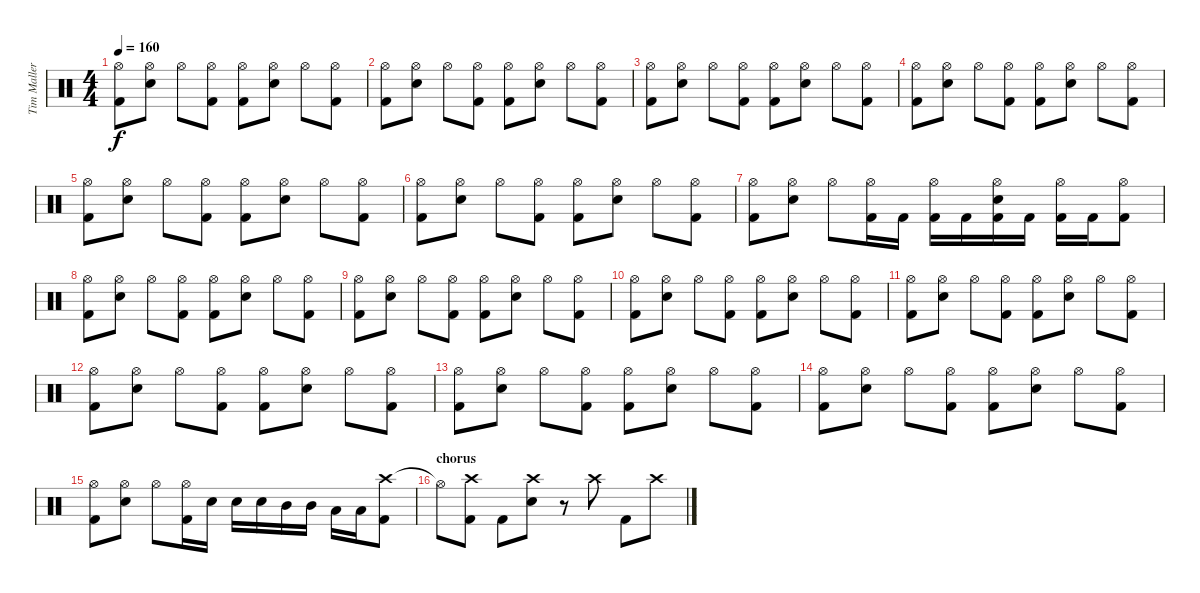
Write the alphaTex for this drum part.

\track ("Tim Mallere" "Tim Maller") {instrument percussion}
\staff {score}
\articulation defaults
\ts (4 4)
\tempo 160
\clef neutral
\ks c
("Hi-Hat (open)" "Kick (hit) 2").8{dy f} ("Hi-Hat (open)" "Electric Snare (hit)").8 "Hi-Hat (open)".8 ("Hi-Hat (open)" "Kick (hit) 2").8 ("Hi-Hat (open)" "Kick (hit) 2").8 ("Hi-Hat (open)" "Electric Snare (hit)").8 "Hi-Hat (open)".8 ("Hi-Hat (open)" "Kick (hit) 2").8 |
("Hi-Hat (open)" "Kick (hit) 2").8 ("Hi-Hat (open)" "Electric Snare (hit)").8 "Hi-Hat (open)".8 ("Hi-Hat (open)" "Kick (hit) 2").8 ("Hi-Hat (open)" "Kick (hit) 2").8 ("Hi-Hat (open)" "Electric Snare (hit)").8 "Hi-Hat (open)".8 ("Hi-Hat (open)" "Kick (hit) 2").8 |
("Hi-Hat (open)" "Kick (hit) 2").8 ("Hi-Hat (open)" "Electric Snare (hit)").8 "Hi-Hat (open)".8 ("Hi-Hat (open)" "Kick (hit) 2").8 ("Hi-Hat (open)" "Kick (hit) 2").8 ("Hi-Hat (open)" "Electric Snare (hit)").8 "Hi-Hat (open)".8 ("Hi-Hat (open)" "Kick (hit) 2").8 |
("Hi-Hat (open)" "Kick (hit) 2").8 ("Hi-Hat (open)" "Electric Snare (hit)").8 "Hi-Hat (open)".8 ("Hi-Hat (open)" "Kick (hit) 2").8 ("Hi-Hat (open)" "Kick (hit) 2").8 ("Hi-Hat (open)" "Electric Snare (hit)").8 "Hi-Hat (open)".8 ("Hi-Hat (open)" "Kick (hit) 2").8 |
("Hi-Hat (open)" "Kick (hit) 2").8 ("Hi-Hat (open)" "Electric Snare (hit)").8 "Hi-Hat (open)".8 ("Hi-Hat (open)" "Kick (hit) 2").8 ("Hi-Hat (open)" "Kick (hit) 2").8 ("Hi-Hat (open)" "Electric Snare (hit)").8 "Hi-Hat (open)".8 ("Hi-Hat (open)" "Kick (hit) 2").8 |
("Hi-Hat (open)" "Kick (hit) 2").8 ("Hi-Hat (open)" "Electric Snare (hit)").8 "Hi-Hat (open)".8 ("Hi-Hat (open)" "Kick (hit) 2").8 ("Hi-Hat (open)" "Kick (hit) 2").8 ("Hi-Hat (open)" "Electric Snare (hit)").8 "Hi-Hat (open)".8 ("Hi-Hat (open)" "Kick (hit) 2").8 |
("Hi-Hat (open)" "Kick (hit) 2").8 ("Hi-Hat (open)" "Electric Snare (hit)").8 "Hi-Hat (open)".8 ("Hi-Hat (open)" "Kick (hit) 2").16 "Kick (hit) 2".16 ("Hi-Hat (open)" "Kick (hit) 2").16 "Kick (hit) 2".16 ("Hi-Hat (open)" "Electric Snare (hit)" "Kick (hit) 2").16 "Kick (hit) 2".16 ("Hi-Hat (open)" "Kick (hit) 2").16 "Kick (hit) 2".16 ("Hi-Hat (open)" "Kick (hit) 2").8 |
("Hi-Hat (open)" "Kick (hit) 2").8 ("Hi-Hat (open)" "Electric Snare (hit)").8 "Hi-Hat (open)".8 ("Hi-Hat (open)" "Kick (hit) 2").8 ("Hi-Hat (open)" "Kick (hit) 2").8 ("Hi-Hat (open)" "Electric Snare (hit)").8 "Hi-Hat (open)".8 ("Hi-Hat (open)" "Kick (hit) 2").8 |
("Hi-Hat (open)" "Kick (hit) 2").8 ("Hi-Hat (open)" "Electric Snare (hit)").8 "Hi-Hat (open)".8 ("Hi-Hat (open)" "Kick (hit) 2").8 ("Hi-Hat (open)" "Kick (hit) 2").8 ("Hi-Hat (open)" "Electric Snare (hit)").8 "Hi-Hat (open)".8 ("Hi-Hat (open)" "Kick (hit) 2").8 |
("Hi-Hat (open)" "Kick (hit) 2").8 ("Hi-Hat (open)" "Electric Snare (hit)").8 "Hi-Hat (open)".8 ("Hi-Hat (open)" "Kick (hit) 2").8 ("Hi-Hat (open)" "Kick (hit) 2").8 ("Hi-Hat (open)" "Electric Snare (hit)").8 "Hi-Hat (open)".8 ("Hi-Hat (open)" "Kick (hit) 2").8 |
("Hi-Hat (open)" "Kick (hit) 2").8 ("Hi-Hat (open)" "Electric Snare (hit)").8 "Hi-Hat (open)".8 ("Hi-Hat (open)" "Kick (hit) 2").8 ("Hi-Hat (open)" "Kick (hit) 2").8 ("Hi-Hat (open)" "Electric Snare (hit)").8 "Hi-Hat (open)".8 ("Hi-Hat (open)" "Kick (hit) 2").8 |
("Hi-Hat (open)" "Kick (hit) 2").8 ("Hi-Hat (open)" "Electric Snare (hit)").8 "Hi-Hat (open)".8 ("Hi-Hat (open)" "Kick (hit) 2").8 ("Hi-Hat (open)" "Kick (hit) 2").8 ("Hi-Hat (open)" "Electric Snare (hit)").8 "Hi-Hat (open)".8 ("Hi-Hat (open)" "Kick (hit) 2").8 |
("Hi-Hat (open)" "Kick (hit) 2").8 ("Hi-Hat (open)" "Electric Snare (hit)").8 "Hi-Hat (open)".8 ("Hi-Hat (open)" "Kick (hit) 2").8 ("Hi-Hat (open)" "Kick (hit) 2").8 ("Hi-Hat (open)" "Electric Snare (hit)").8 "Hi-Hat (open)".8 ("Hi-Hat (open)" "Kick (hit) 2").8 |
("Hi-Hat (open)" "Kick (hit) 2").8 ("Hi-Hat (open)" "Electric Snare (hit)").8 "Hi-Hat (open)".8 ("Hi-Hat (open)" "Kick (hit) 2").8 ("Hi-Hat (open)" "Kick (hit) 2").8 ("Hi-Hat (open)" "Electric Snare (hit)").8 "Hi-Hat (open)".8 ("Hi-Hat (open)" "Kick (hit) 2").8 |
("Hi-Hat (open)" "Kick (hit) 2").8 ("Hi-Hat (open)" "Electric Snare (hit)").8 "Hi-Hat (open)".8 ("Hi-Hat (open)" "Kick (hit) 2").16 "Electric Snare (hit)".16 "Electric Snare (hit)".16 "Electric Snare (hit)".16 "Mid Tom (hit)".16 "Mid Tom (hit)".16 "Low Tom (hit)".16 "Low Tom (hit)".16 ("Crash high (hit)" "Kick (hit) 2").8 |
\section ("" "chorus")
"Hi-Hat (open)"{t}.8 ("Crash high (hit)" "Kick (hit) 2").8 "Kick (hit) 2".8 ("Crash high (hit)" "Electric Snare (hit)").8 r.8 "Crash high (hit)".8 "Kick (hit) 2".8 "Crash high (hit)".8
